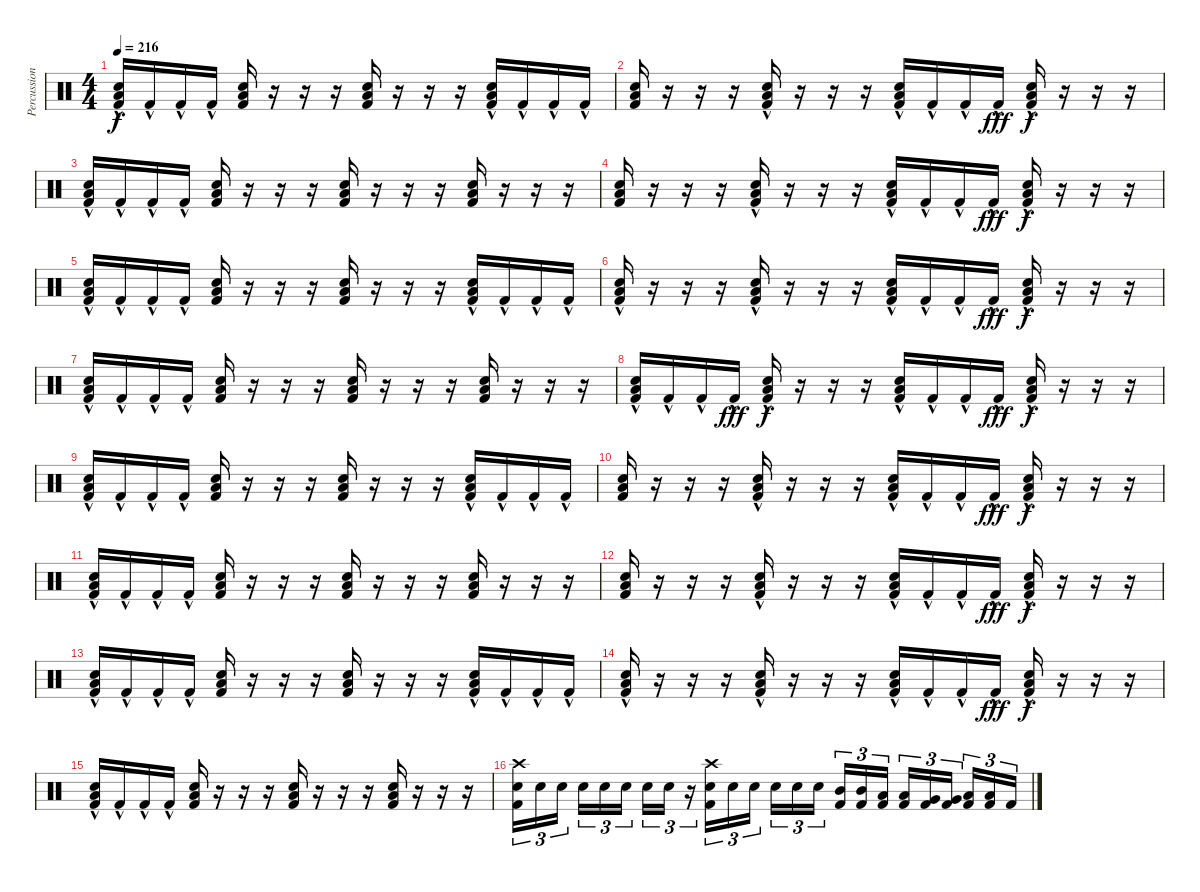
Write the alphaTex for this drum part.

\track ("Percussions" "Percussion") {instrument percussion}
\staff {score}
\articulation defaults
\ts (4 4)
\tempo 216
\clef neutral
\ks c
("Electric Snare (hit)" "Low Floor Tom (hit)" "Kick (hit) 2"{hac}).16{dy f} "Kick (hit) 2"{hac}.16 "Kick (hit) 2"{hac}.16 "Kick (hit) 2"{hac}.16 ("Electric Snare (hit)" "Low Floor Tom (hit)" "Kick (hit) 2").16 r.16 r.16 r.16 ("Electric Snare (hit)" "Low Floor Tom (hit)" "Kick (hit) 2").16 r.16 r.16 r.16 ("Electric Snare (hit)" "Low Floor Tom (hit)" "Kick (hit) 2"{hac}).16 "Kick (hit) 2"{hac}.16 "Kick (hit) 2"{hac}.16 "Kick (hit) 2"{hac}.16 |
("Electric Snare (hit)" "Low Floor Tom (hit)" "Kick (hit) 2").16 r.16 r.16 r.16 ("Electric Snare (hit)" "Low Floor Tom (hit)" "Kick (hit) 2"{hac}).16 r.16 r.16 r.16 ("Electric Snare (hit)" "Low Floor Tom (hit)" "Kick (hit) 2"{hac}).16 "Kick (hit) 2"{hac}.16 "Kick (hit) 2"{hac}.16 "Kick (hit) 2"{hac}.16{dy fff} ("Electric Snare (hit)" "Low Floor Tom (hit)" "Kick (hit) 2"{hac}).16{dy f} r.16 r.16 r.16 |
("Electric Snare (hit)" "Low Floor Tom (hit)" "Kick (hit) 2"{hac}).16 "Kick (hit) 2"{hac}.16 "Kick (hit) 2"{hac}.16 "Kick (hit) 2"{hac}.16 ("Electric Snare (hit)" "Low Floor Tom (hit)" "Kick (hit) 2").16 r.16 r.16 r.16 ("Electric Snare (hit)" "Low Floor Tom (hit)" "Kick (hit) 2").16 r.16 r.16 r.16 ("Electric Snare (hit)" "Low Floor Tom (hit)" "Kick (hit) 2").16 r.16 r.16 r.16 |
("Electric Snare (hit)" "Low Floor Tom (hit)" "Kick (hit) 2").16 r.16 r.16 r.16 ("Electric Snare (hit)" "Low Floor Tom (hit)" "Kick (hit) 2"{hac}).16 r.16 r.16 r.16 ("Electric Snare (hit)" "Low Floor Tom (hit)" "Kick (hit) 2"{hac}).16 "Kick (hit) 2"{hac}.16 "Kick (hit) 2"{hac}.16 "Kick (hit) 2"{hac}.16{dy fff} ("Electric Snare (hit)" "Low Floor Tom (hit)" "Kick (hit) 2"{hac}).16{dy f} r.16 r.16 r.16 |
("Electric Snare (hit)" "Low Floor Tom (hit)" "Kick (hit) 2"{hac}).16 "Kick (hit) 2"{hac}.16 "Kick (hit) 2"{hac}.16 "Kick (hit) 2"{hac}.16 ("Electric Snare (hit)" "Low Floor Tom (hit)" "Kick (hit) 2").16 r.16 r.16 r.16 ("Electric Snare (hit)" "Low Floor Tom (hit)" "Kick (hit) 2").16 r.16 r.16 r.16 ("Electric Snare (hit)" "Low Floor Tom (hit)" "Kick (hit) 2"{hac}).16 "Kick (hit) 2"{hac}.16 "Kick (hit) 2"{hac}.16 "Kick (hit) 2"{hac}.16 |
("Electric Snare (hit)" "Low Floor Tom (hit)" "Kick (hit) 2"{hac}).16 r.16 r.16 r.16 ("Electric Snare (hit)" "Low Floor Tom (hit)" "Kick (hit) 2"{hac}).16 r.16 r.16 r.16 ("Electric Snare (hit)" "Low Floor Tom (hit)" "Kick (hit) 2"{hac}).16 "Kick (hit) 2"{hac}.16 "Kick (hit) 2"{hac}.16 "Kick (hit) 2"{hac}.16{dy fff} ("Electric Snare (hit)" "Low Floor Tom (hit)" "Kick (hit) 2"{hac}).16{dy f} r.16 r.16 r.16 |
("Electric Snare (hit)" "Low Floor Tom (hit)" "Kick (hit) 2"{hac}).16 "Kick (hit) 2"{hac}.16 "Kick (hit) 2"{hac}.16 "Kick (hit) 2"{hac}.16 ("Electric Snare (hit)" "Low Floor Tom (hit)" "Kick (hit) 2").16 r.16 r.16 r.16 ("Electric Snare (hit)" "Low Floor Tom (hit)" "Kick (hit) 2").16 r.16 r.16 r.16 ("Electric Snare (hit)" "Low Floor Tom (hit)" "Kick (hit) 2").16 r.16 r.16 r.16 |
("Electric Snare (hit)" "Low Floor Tom (hit)" "Kick (hit) 2"{hac}).16 "Kick (hit) 2"{hac}.16 "Kick (hit) 2"{hac}.16 "Kick (hit) 2"{hac}.16{dy fff} ("Electric Snare (hit)" "Low Floor Tom (hit)" "Kick (hit) 2"{hac}).16{dy f} r.16 r.16 r.16 ("Electric Snare (hit)" "Low Floor Tom (hit)" "Kick (hit) 2"{hac}).16 "Kick (hit) 2"{hac}.16 "Kick (hit) 2"{hac}.16 "Kick (hit) 2"{hac}.16{dy fff} ("Electric Snare (hit)" "Low Floor Tom (hit)" "Kick (hit) 2"{hac}).16{dy f} r.16 r.16 r.16 |
("Electric Snare (hit)" "Low Floor Tom (hit)" "Kick (hit) 2"{hac}).16 "Kick (hit) 2"{hac}.16 "Kick (hit) 2"{hac}.16 "Kick (hit) 2"{hac}.16 ("Electric Snare (hit)" "Low Floor Tom (hit)" "Kick (hit) 2").16 r.16 r.16 r.16 ("Electric Snare (hit)" "Low Floor Tom (hit)" "Kick (hit) 2").16 r.16 r.16 r.16 ("Electric Snare (hit)" "Low Floor Tom (hit)" "Kick (hit) 2"{hac}).16 "Kick (hit) 2"{hac}.16 "Kick (hit) 2"{hac}.16 "Kick (hit) 2"{hac}.16 |
("Electric Snare (hit)" "Low Floor Tom (hit)" "Kick (hit) 2").16 r.16 r.16 r.16 ("Electric Snare (hit)" "Low Floor Tom (hit)" "Kick (hit) 2"{hac}).16 r.16 r.16 r.16 ("Electric Snare (hit)" "Low Floor Tom (hit)" "Kick (hit) 2"{hac}).16 "Kick (hit) 2"{hac}.16 "Kick (hit) 2"{hac}.16 "Kick (hit) 2"{hac}.16{dy fff} ("Electric Snare (hit)" "Low Floor Tom (hit)" "Kick (hit) 2"{hac}).16{dy f} r.16 r.16 r.16 |
("Electric Snare (hit)" "Low Floor Tom (hit)" "Kick (hit) 2"{hac}).16 "Kick (hit) 2"{hac}.16 "Kick (hit) 2"{hac}.16 "Kick (hit) 2"{hac}.16 ("Electric Snare (hit)" "Low Floor Tom (hit)" "Kick (hit) 2").16 r.16 r.16 r.16 ("Electric Snare (hit)" "Low Floor Tom (hit)" "Kick (hit) 2").16 r.16 r.16 r.16 ("Electric Snare (hit)" "Low Floor Tom (hit)" "Kick (hit) 2").16 r.16 r.16 r.16 |
("Electric Snare (hit)" "Low Floor Tom (hit)" "Kick (hit) 2").16 r.16 r.16 r.16 ("Electric Snare (hit)" "Low Floor Tom (hit)" "Kick (hit) 2"{hac}).16 r.16 r.16 r.16 ("Electric Snare (hit)" "Low Floor Tom (hit)" "Kick (hit) 2"{hac}).16 "Kick (hit) 2"{hac}.16 "Kick (hit) 2"{hac}.16 "Kick (hit) 2"{hac}.16{dy fff} ("Electric Snare (hit)" "Low Floor Tom (hit)" "Kick (hit) 2"{hac}).16{dy f} r.16 r.16 r.16 |
("Electric Snare (hit)" "Low Floor Tom (hit)" "Kick (hit) 2"{hac}).16 "Kick (hit) 2"{hac}.16 "Kick (hit) 2"{hac}.16 "Kick (hit) 2"{hac}.16 ("Electric Snare (hit)" "Low Floor Tom (hit)" "Kick (hit) 2").16 r.16 r.16 r.16 ("Electric Snare (hit)" "Low Floor Tom (hit)" "Kick (hit) 2").16 r.16 r.16 r.16 ("Electric Snare (hit)" "Low Floor Tom (hit)" "Kick (hit) 2"{hac}).16 "Kick (hit) 2"{hac}.16 "Kick (hit) 2"{hac}.16 "Kick (hit) 2"{hac}.16 |
("Electric Snare (hit)" "Low Floor Tom (hit)" "Kick (hit) 2"{hac}).16 r.16 r.16 r.16 ("Electric Snare (hit)" "Low Floor Tom (hit)" "Kick (hit) 2"{hac}).16 r.16 r.16 r.16 ("Electric Snare (hit)" "Low Floor Tom (hit)" "Kick (hit) 2"{hac}).16 "Kick (hit) 2"{hac}.16 "Kick (hit) 2"{hac}.16 "Kick (hit) 2"{hac}.16{dy fff} ("Electric Snare (hit)" "Low Floor Tom (hit)" "Kick (hit) 2"{hac}).16{dy f} r.16 r.16 r.16 |
("Electric Snare (hit)" "Low Floor Tom (hit)" "Kick (hit) 2"{hac}).16 "Kick (hit) 2"{hac}.16 "Kick (hit) 2"{hac}.16 "Kick (hit) 2"{hac}.16 ("Electric Snare (hit)" "Low Floor Tom (hit)" "Kick (hit) 2").16 r.16 r.16 r.16 ("Electric Snare (hit)" "Low Floor Tom (hit)" "Kick (hit) 2").16 r.16 r.16 r.16 ("Electric Snare (hit)" "Low Floor Tom (hit)" "Kick (hit) 2").16 r.16 r.16 r.16 |
("Crash high (hit)" "Electric Snare (hit)" "Kick (hit) 2").16{tu (3 2)} "Electric Snare (hit)".16{tu (3 2)} "Electric Snare (hit)".16{tu (3 2) beam splitsecondary} "Electric Snare (hit)".16{tu (3 2)} "Electric Snare (hit)".16{tu (3 2)} "Electric Snare (hit)".16{tu (3 2)} "Electric Snare (hit)".16{tu (3 2)} "Electric Snare (hit)".16{tu (3 2)} r.16{tu (3 2)} ("Crash high (hit)" "Electric Snare (hit)" "Kick (hit) 2").16{tu (3 2)} "Electric Snare (hit)".16{tu (3 2)} "Electric Snare (hit)".16{tu (3 2)} "Electric Snare (hit)".16{tu (3 2)} "Electric Snare (hit)".16{tu (3 2)} "Electric Snare (hit)".16{tu (3 2) beam splitsecondary} ("Mid Tom (hit)" "Kick (hit) 2").16{tu (3 2)} ("Mid Tom (hit)" "Kick (hit) 2").16{tu (3 2)} ("Low Tom (hit)" "Kick (hit) 2").16{tu (3 2)} ("Low Tom (hit)" "Kick (hit) 2").16{tu (3 2)} ("Very Low Tom (hit)" "Kick (hit) 2").16{tu (3 2)} ("Very Low Tom (hit)" "Kick (hit) 2").16{tu (3 2) beam splitsecondary} ("Low Floor Tom (hit)" "Kick (hit) 2").16{tu (3 2)} ("Low Floor Tom (hit)" "Kick (hit) 2").16{tu (3 2)} "Kick (hit) 2".16{tu (3 2)}
